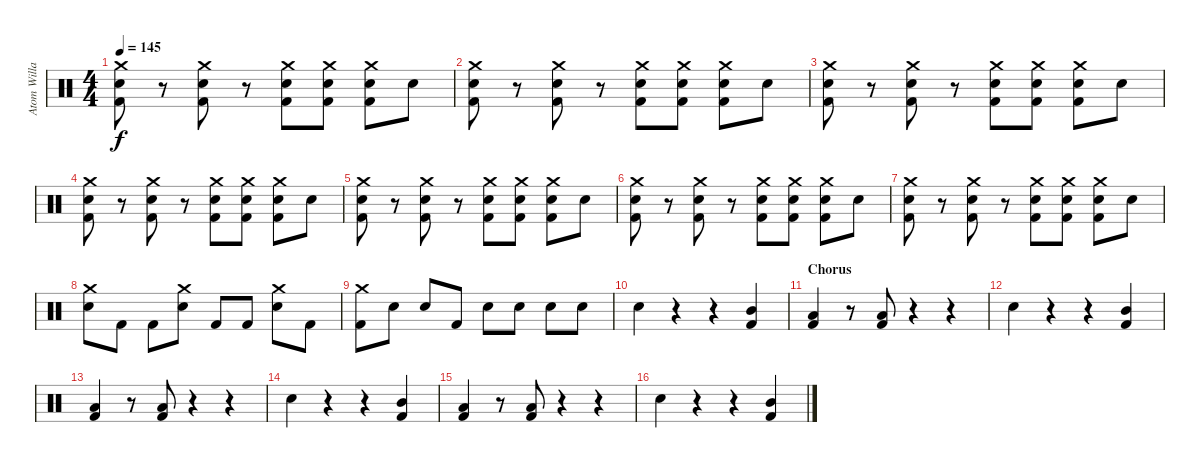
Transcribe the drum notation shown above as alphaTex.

\track ("Atom Willard (Drums)" "Atom Willa") {instrument percussion}
\staff {score}
\articulation defaults
\ts (4 4)
\tempo 145
\clef neutral
\ks c
("Crash medium (hit)" "Electric Snare (hit)" "Kick (hit) 2").8{dy f} r.8 ("Crash medium (hit)" "Electric Snare (hit)" "Kick (hit) 2").8 r.8 ("Crash medium (hit)" "Electric Snare (hit)" "Kick (hit) 2").8 ("Crash medium (hit)" "Electric Snare (hit)" "Kick (hit) 2").8 ("Crash medium (hit)" "Electric Snare (hit)" "Kick (hit) 2").8 "Snare (hit)".8 |
("Crash medium (hit)" "Electric Snare (hit)" "Kick (hit) 2").8 r.8 ("Crash medium (hit)" "Electric Snare (hit)" "Kick (hit) 2").8 r.8 ("Crash medium (hit)" "Electric Snare (hit)" "Kick (hit) 2").8 ("Crash medium (hit)" "Electric Snare (hit)" "Kick (hit) 2").8 ("Crash medium (hit)" "Electric Snare (hit)" "Kick (hit) 2").8 "Snare (hit)".8 |
("Crash medium (hit)" "Electric Snare (hit)" "Kick (hit) 2").8 r.8 ("Crash medium (hit)" "Electric Snare (hit)" "Kick (hit) 2").8 r.8 ("Crash medium (hit)" "Electric Snare (hit)" "Kick (hit) 2").8 ("Crash medium (hit)" "Electric Snare (hit)" "Kick (hit) 2").8 ("Crash medium (hit)" "Electric Snare (hit)" "Kick (hit) 2").8 "Snare (hit)".8 |
("Crash medium (hit)" "Electric Snare (hit)" "Kick (hit) 2").8 r.8 ("Crash medium (hit)" "Electric Snare (hit)" "Kick (hit) 2").8 r.8 ("Crash medium (hit)" "Electric Snare (hit)" "Kick (hit) 2").8 ("Crash medium (hit)" "Electric Snare (hit)" "Kick (hit) 2").8 ("Crash medium (hit)" "Electric Snare (hit)" "Kick (hit) 2").8 "Snare (hit)".8 |
("Crash medium (hit)" "Electric Snare (hit)" "Kick (hit) 2").8 r.8 ("Crash medium (hit)" "Electric Snare (hit)" "Kick (hit) 2").8 r.8 ("Crash medium (hit)" "Electric Snare (hit)" "Kick (hit) 2").8 ("Crash medium (hit)" "Electric Snare (hit)" "Kick (hit) 2").8 ("Crash medium (hit)" "Electric Snare (hit)" "Kick (hit) 2").8 "Snare (hit)".8 |
("Crash medium (hit)" "Electric Snare (hit)" "Kick (hit) 2").8 r.8 ("Crash medium (hit)" "Electric Snare (hit)" "Kick (hit) 2").8 r.8 ("Crash medium (hit)" "Electric Snare (hit)" "Kick (hit) 2").8 ("Crash medium (hit)" "Electric Snare (hit)" "Kick (hit) 2").8 ("Crash medium (hit)" "Electric Snare (hit)" "Kick (hit) 2").8 "Snare (hit)".8 |
("Crash medium (hit)" "Electric Snare (hit)" "Kick (hit) 2").8 r.8 ("Crash medium (hit)" "Electric Snare (hit)" "Kick (hit) 2").8 r.8 ("Crash medium (hit)" "Electric Snare (hit)" "Kick (hit) 2").8 ("Crash medium (hit)" "Electric Snare (hit)" "Kick (hit) 2").8 ("Crash medium (hit)" "Electric Snare (hit)" "Kick (hit) 2").8 "Snare (hit)".8 |
("Crash medium (hit)" "Electric Snare (hit)").8 "Kick (hit) 2".8 "Kick (hit) 2".8 ("Crash medium (hit)" "Electric Snare (hit)").8 "Kick (hit) 2".8 "Kick (hit) 2".8 ("Crash medium (hit)" "Electric Snare (hit)").8 "Kick (hit) 2".8 |
("Crash medium (hit)" "Kick (hit) 2").8 "Snare (hit)".8 "Snare (hit)".8 "Kick (hit) 2".8 "Snare (hit)".8 "Snare (hit)".8 "Snare (hit)".8 "Snare (hit)".8 |
"Electric Snare (hit)".4 r.4 r.4 ("Mid Tom (hit)" "Kick (hit) 2").4 |
\section ("" "Chorus")
("Low Tom (hit)" "Kick (hit) 2").4 r.8 ("Low Tom (hit)" "Kick (hit) 2").8 r.4 r.4 |
"Electric Snare (hit)".4 r.4 r.4 ("Mid Tom (hit)" "Kick (hit) 2").4 |
("Low Tom (hit)" "Kick (hit) 2").4 r.8 ("Low Tom (hit)" "Kick (hit) 2").8 r.4 r.4 |
"Electric Snare (hit)".4 r.4 r.4 ("Mid Tom (hit)" "Kick (hit) 2").4 |
("Low Tom (hit)" "Kick (hit) 2").4 r.8 ("Low Tom (hit)" "Kick (hit) 2").8 r.4 r.4 |
"Electric Snare (hit)".4 r.4 r.4 ("Mid Tom (hit)" "Kick (hit) 2").4
